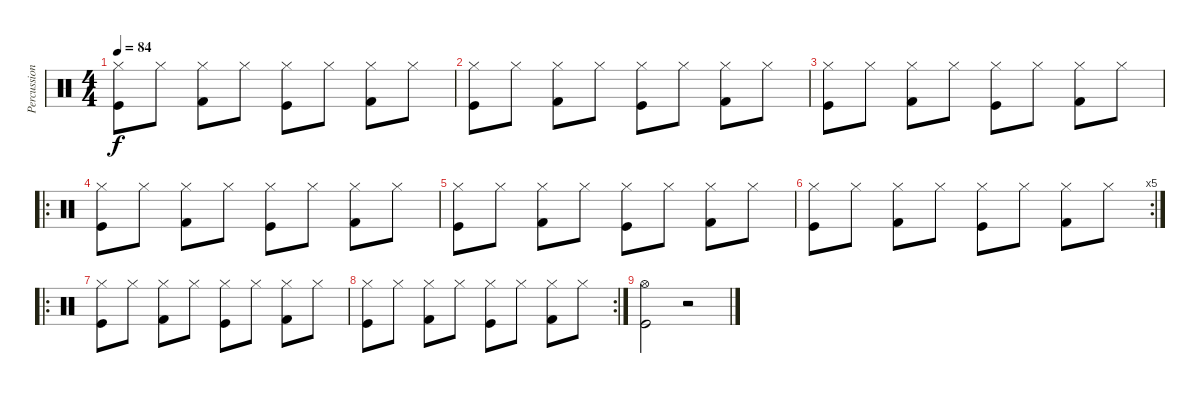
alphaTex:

\track ("Percussions" "Percussion") {instrument percussion}
\staff {score}
\articulation defaults
\ts (4 4)
\tempo 84
\clef neutral
\ks c
("Hi-Hat (closed)" "Kick (hit)").8{dy f} "Hi-Hat (closed)".8 ("Hi-Hat (closed)" "Kick (hit) 2").8 "Hi-Hat (closed)".8 ("Hi-Hat (closed)" "Kick (hit)").8 "Hi-Hat (closed)".8 ("Hi-Hat (closed)" "Kick (hit) 2").8 "Hi-Hat (closed)".8 |
("Hi-Hat (closed)" "Kick (hit)").8 "Hi-Hat (closed)".8 ("Hi-Hat (closed)" "Kick (hit) 2").8 "Hi-Hat (closed)".8 ("Hi-Hat (closed)" "Kick (hit)").8 "Hi-Hat (closed)".8 ("Hi-Hat (closed)" "Kick (hit) 2").8 "Hi-Hat (closed)".8 |
("Hi-Hat (closed)" "Kick (hit)").8 "Hi-Hat (closed)".8 ("Hi-Hat (closed)" "Kick (hit) 2").8 "Hi-Hat (closed)".8 ("Hi-Hat (closed)" "Kick (hit)").8 "Hi-Hat (closed)".8 ("Hi-Hat (closed)" "Kick (hit) 2").8 "Hi-Hat (closed)".8 |
\ro
("Hi-Hat (closed)" "Kick (hit)").8 "Hi-Hat (closed)".8 ("Hi-Hat (closed)" "Kick (hit) 2").8 "Hi-Hat (closed)".8 ("Hi-Hat (closed)" "Kick (hit)").8 "Hi-Hat (closed)".8 ("Hi-Hat (closed)" "Kick (hit) 2").8 "Hi-Hat (closed)".8 |
("Hi-Hat (closed)" "Kick (hit)").8 "Hi-Hat (closed)".8 ("Hi-Hat (closed)" "Kick (hit) 2").8 "Hi-Hat (closed)".8 ("Hi-Hat (closed)" "Kick (hit)").8 "Hi-Hat (closed)".8 ("Hi-Hat (closed)" "Kick (hit) 2").8 "Hi-Hat (closed)".8 |
\rc 5
("Hi-Hat (closed)" "Kick (hit)").8 "Hi-Hat (closed)".8 ("Hi-Hat (closed)" "Kick (hit) 2").8 "Hi-Hat (closed)".8 ("Hi-Hat (closed)" "Kick (hit)").8 "Hi-Hat (closed)".8 ("Hi-Hat (closed)" "Kick (hit) 2").8 "Hi-Hat (closed)".8 |
\ro
("Hi-Hat (closed)" "Kick (hit)").8 "Hi-Hat (closed)".8 ("Hi-Hat (closed)" "Kick (hit) 2").8 "Hi-Hat (closed)".8 ("Hi-Hat (closed)" "Kick (hit)").8 "Hi-Hat (closed)".8 ("Hi-Hat (closed)" "Kick (hit) 2").8 "Hi-Hat (closed)".8 |
\rc 2
("Hi-Hat (closed)" "Kick (hit)").8 "Hi-Hat (closed)".8 ("Hi-Hat (closed)" "Kick (hit) 2").8 "Hi-Hat (closed)".8 ("Hi-Hat (closed)" "Kick (hit)").8 "Hi-Hat (closed)".8 ("Hi-Hat (closed)" "Kick (hit) 2").8 "Hi-Hat (closed)".8 |
("Hi-Hat (open)" "Kick (hit)").2 r.2
